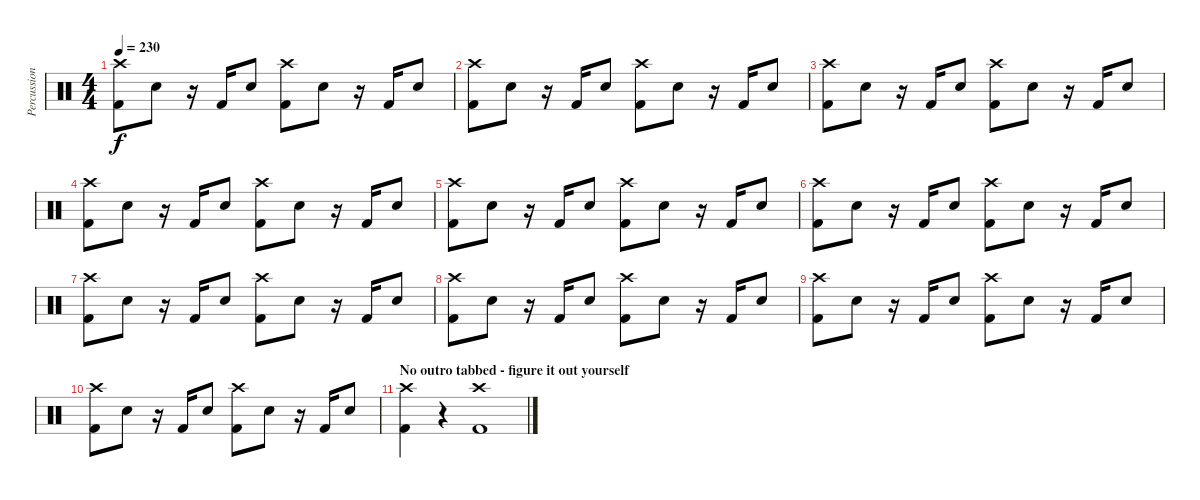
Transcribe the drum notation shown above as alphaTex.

\track ("Percussion" "Percussion") {instrument percussion}
\staff {score}
\articulation defaults
\ts (4 4)
\tempo 230
\clef neutral
\ks c
("Kick (hit) 2" "Crash high (hit)").8{dy f} "Snare (hit) 2".8 r.16 "Kick (hit) 2".16 "Snare (hit) 2".8 ("Kick (hit) 2" "Crash high (hit)").8 "Snare (hit) 2".8 r.16 "Kick (hit) 2".16 "Snare (hit) 2".8 |
("Kick (hit) 2" "Crash high (hit)").8 "Snare (hit) 2".8 r.16 "Kick (hit) 2".16 "Snare (hit) 2".8 ("Kick (hit) 2" "Crash high (hit)").8 "Snare (hit) 2".8 r.16 "Kick (hit) 2".16 "Snare (hit) 2".8 |
("Kick (hit) 2" "Crash high (hit)").8 "Snare (hit) 2".8 r.16 "Kick (hit) 2".16 "Snare (hit) 2".8 ("Kick (hit) 2" "Crash high (hit)").8 "Snare (hit) 2".8 r.16 "Kick (hit) 2".16 "Snare (hit) 2".8 |
("Kick (hit) 2" "Crash high (hit)").8 "Snare (hit) 2".8 r.16 "Kick (hit) 2".16 "Snare (hit) 2".8 ("Kick (hit) 2" "Crash high (hit)").8 "Snare (hit) 2".8 r.16 "Kick (hit) 2".16 "Snare (hit) 2".8 |
("Kick (hit) 2" "Crash high (hit)").8 "Snare (hit) 2".8 r.16 "Kick (hit) 2".16 "Snare (hit) 2".8 ("Kick (hit) 2" "Crash high (hit)").8 "Snare (hit) 2".8 r.16 "Kick (hit) 2".16 "Snare (hit) 2".8 |
("Kick (hit) 2" "Crash high (hit)").8 "Snare (hit) 2".8 r.16 "Kick (hit) 2".16 "Snare (hit) 2".8 ("Kick (hit) 2" "Crash high (hit)").8 "Snare (hit) 2".8 r.16 "Kick (hit) 2".16 "Snare (hit) 2".8 |
("Kick (hit) 2" "Crash high (hit)").8 "Snare (hit) 2".8 r.16 "Kick (hit) 2".16 "Snare (hit) 2".8 ("Kick (hit) 2" "Crash high (hit)").8 "Snare (hit) 2".8 r.16 "Kick (hit) 2".16 "Snare (hit) 2".8 |
("Kick (hit) 2" "Crash high (hit)").8 "Snare (hit) 2".8 r.16 "Kick (hit) 2".16 "Snare (hit) 2".8 ("Kick (hit) 2" "Crash high (hit)").8 "Snare (hit) 2".8 r.16 "Kick (hit) 2".16 "Snare (hit) 2".8 |
("Kick (hit) 2" "Crash high (hit)").8 "Snare (hit) 2".8 r.16 "Kick (hit) 2".16 "Snare (hit) 2".8 ("Kick (hit) 2" "Crash high (hit)").8 "Snare (hit) 2".8 r.16 "Kick (hit) 2".16 "Snare (hit) 2".8 |
("Kick (hit) 2" "Crash high (hit)").8 "Snare (hit) 2".8 r.16 "Kick (hit) 2".16 "Snare (hit) 2".8 ("Kick (hit) 2" "Crash high (hit)").8 "Snare (hit) 2".8 r.16 "Kick (hit) 2".16 "Snare (hit) 2".8 |
\section ("" "No outro tabbed - figure it out yourself")
("Kick (hit) 2" "Crash high (hit)").4 r.4 ("Kick (hit) 2" "Crash high (hit)").1
